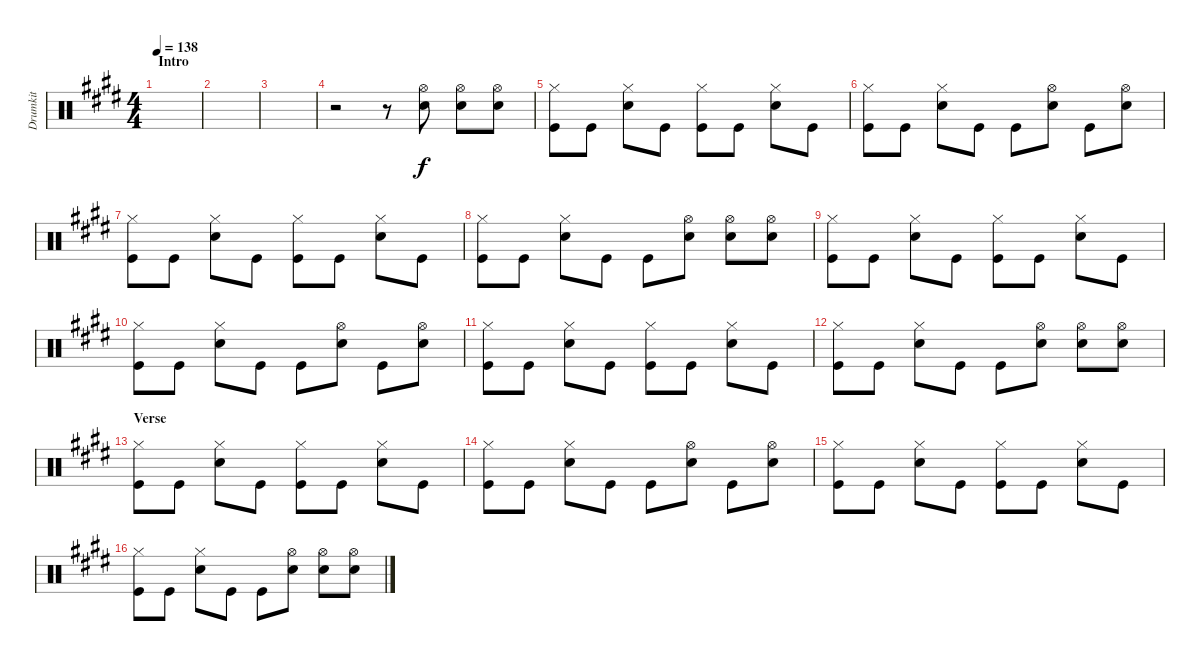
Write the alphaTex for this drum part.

\track ("Drumkit" "Drumkit") {instrument percussion}
\staff {score}
\articulation defaults
\ts (4 4)
\section ("" "Intro")
\tempo 138
\clef neutral
\ks c#minor
|
|
|
r.2 r.8 ("Snare (hit) 2" "Hi-Hat (open)").8 ("Snare (hit) 2" "Hi-Hat (open)").8 ("Snare (hit) 2" "Hi-Hat (open)").8 |
("Kick (hit)" "Hi-Hat (closed)").8 "Kick (hit)".8 ("Snare (hit) 2" "Hi-Hat (closed)").8 "Kick (hit)".8 ("Kick (hit)" "Hi-Hat (closed)").8 "Kick (hit)".8 ("Snare (hit) 2" "Hi-Hat (closed)").8 "Kick (hit)".8 |
("Kick (hit)" "Hi-Hat (closed)").8 "Kick (hit)".8 ("Snare (hit) 2" "Hi-Hat (closed)").8 "Kick (hit)".8 "Kick (hit)".8 ("Snare (hit) 2" "Hi-Hat (open)").8 "Kick (hit)".8 ("Snare (hit) 2" "Hi-Hat (open)").8 |
("Kick (hit)" "Hi-Hat (closed)").8 "Kick (hit)".8 ("Snare (hit) 2" "Hi-Hat (closed)").8 "Kick (hit)".8 ("Kick (hit)" "Hi-Hat (closed)").8 "Kick (hit)".8 ("Snare (hit) 2" "Hi-Hat (closed)").8 "Kick (hit)".8 |
("Kick (hit)" "Hi-Hat (closed)").8 "Kick (hit)".8 ("Snare (hit) 2" "Hi-Hat (closed)").8 "Kick (hit)".8 "Kick (hit)".8 ("Snare (hit) 2" "Hi-Hat (open)").8 ("Snare (hit) 2" "Hi-Hat (open)").8 ("Snare (hit) 2" "Hi-Hat (open)").8 |
("Kick (hit)" "Hi-Hat (closed)").8 "Kick (hit)".8 ("Snare (hit) 2" "Hi-Hat (closed)").8 "Kick (hit)".8 ("Kick (hit)" "Hi-Hat (closed)").8 "Kick (hit)".8 ("Snare (hit) 2" "Hi-Hat (closed)").8 "Kick (hit)".8 |
("Kick (hit)" "Hi-Hat (closed)").8 "Kick (hit)".8 ("Snare (hit) 2" "Hi-Hat (closed)").8 "Kick (hit)".8 "Kick (hit)".8 ("Snare (hit) 2" "Hi-Hat (open)").8 "Kick (hit)".8 ("Snare (hit) 2" "Hi-Hat (open)").8 |
("Kick (hit)" "Hi-Hat (closed)").8 "Kick (hit)".8 ("Snare (hit) 2" "Hi-Hat (closed)").8 "Kick (hit)".8 ("Kick (hit)" "Hi-Hat (closed)").8 "Kick (hit)".8 ("Snare (hit) 2" "Hi-Hat (closed)").8 "Kick (hit)".8 |
("Kick (hit)" "Hi-Hat (closed)").8 "Kick (hit)".8 ("Snare (hit) 2" "Hi-Hat (closed)").8 "Kick (hit)".8 "Kick (hit)".8 ("Snare (hit) 2" "Hi-Hat (open)").8 ("Snare (hit) 2" "Hi-Hat (open)").8 ("Snare (hit) 2" "Hi-Hat (open)").8 |
\section ("" "Verse")
("Kick (hit)" "Hi-Hat (closed)").8 "Kick (hit)".8 ("Snare (hit) 2" "Hi-Hat (closed)").8 "Kick (hit)".8 ("Kick (hit)" "Hi-Hat (closed)").8 "Kick (hit)".8 ("Snare (hit) 2" "Hi-Hat (closed)").8 "Kick (hit)".8 |
("Kick (hit)" "Hi-Hat (closed)").8 "Kick (hit)".8 ("Snare (hit) 2" "Hi-Hat (closed)").8 "Kick (hit)".8 "Kick (hit)".8 ("Snare (hit) 2" "Hi-Hat (open)").8 "Kick (hit)".8 ("Snare (hit) 2" "Hi-Hat (open)").8 |
("Kick (hit)" "Hi-Hat (closed)").8 "Kick (hit)".8 ("Snare (hit) 2" "Hi-Hat (closed)").8 "Kick (hit)".8 ("Kick (hit)" "Hi-Hat (closed)").8 "Kick (hit)".8 ("Snare (hit) 2" "Hi-Hat (closed)").8 "Kick (hit)".8 |
("Kick (hit)" "Hi-Hat (closed)").8 "Kick (hit)".8 ("Snare (hit) 2" "Hi-Hat (closed)").8 "Kick (hit)".8 "Kick (hit)".8 ("Snare (hit) 2" "Hi-Hat (open)").8 ("Snare (hit) 2" "Hi-Hat (open)").8 ("Snare (hit) 2" "Hi-Hat (open)").8
